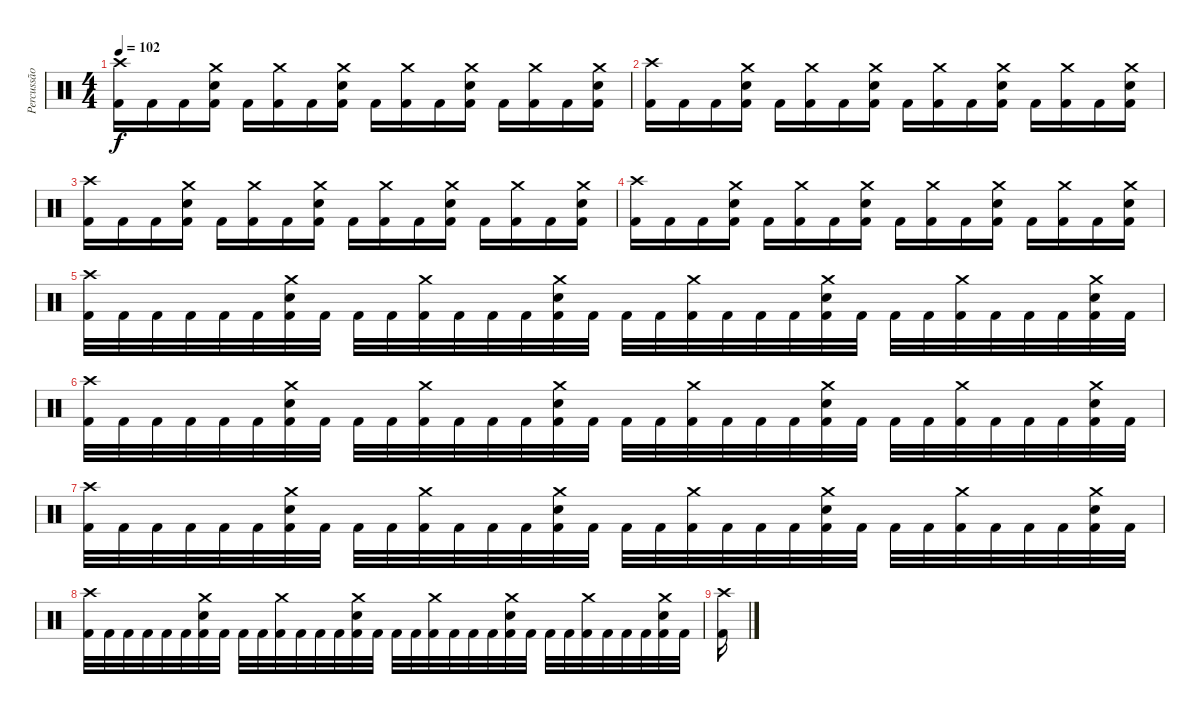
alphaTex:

\track ("Percussão" "Percussão") {instrument percussion}
\staff {score}
\articulation defaults
\ts (4 4)
\tempo 102
\clef neutral
\ks c
("Crash high (hit)" "Kick (hit) 2").16{dy f} "Kick (hit) 2".16 "Kick (hit) 2".16 ("Crash medium (hit)" "Electric Snare (hit)" "Kick (hit) 2").16 "Kick (hit) 2".16 ("Crash medium (hit)" "Kick (hit) 2").16 "Kick (hit) 2".16 ("Crash medium (hit)" "Electric Snare (hit)" "Kick (hit) 2").16 "Kick (hit) 2".16 ("Crash medium (hit)" "Kick (hit) 2").16 "Kick (hit) 2".16 ("Crash medium (hit)" "Electric Snare (hit)" "Kick (hit) 2").16 "Kick (hit) 2".16 ("Crash medium (hit)" "Kick (hit) 2").16 "Kick (hit) 2".16 ("Crash medium (hit)" "Electric Snare (hit)" "Kick (hit) 2").16 |
("Crash high (hit)" "Kick (hit) 2").16 "Kick (hit) 2".16 "Kick (hit) 2".16 ("Crash medium (hit)" "Electric Snare (hit)" "Kick (hit) 2").16 "Kick (hit) 2".16 ("Crash medium (hit)" "Kick (hit) 2").16 "Kick (hit) 2".16 ("Crash medium (hit)" "Electric Snare (hit)" "Kick (hit) 2").16 "Kick (hit) 2".16 ("Crash medium (hit)" "Kick (hit) 2").16 "Kick (hit) 2".16 ("Crash medium (hit)" "Electric Snare (hit)" "Kick (hit) 2").16 "Kick (hit) 2".16 ("Crash medium (hit)" "Kick (hit) 2").16 "Kick (hit) 2".16 ("Crash medium (hit)" "Electric Snare (hit)" "Kick (hit) 2").16 |
("Crash high (hit)" "Kick (hit) 2").16 "Kick (hit) 2".16 "Kick (hit) 2".16 ("Crash medium (hit)" "Electric Snare (hit)" "Kick (hit) 2").16 "Kick (hit) 2".16 ("Crash medium (hit)" "Kick (hit) 2").16 "Kick (hit) 2".16 ("Crash medium (hit)" "Electric Snare (hit)" "Kick (hit) 2").16 "Kick (hit) 2".16 ("Crash medium (hit)" "Kick (hit) 2").16 "Kick (hit) 2".16 ("Crash medium (hit)" "Electric Snare (hit)" "Kick (hit) 2").16 "Kick (hit) 2".16 ("Crash medium (hit)" "Kick (hit) 2").16 "Kick (hit) 2".16 ("Crash medium (hit)" "Electric Snare (hit)" "Kick (hit) 2").16 |
("Crash high (hit)" "Kick (hit) 2").16 "Kick (hit) 2".16 "Kick (hit) 2".16 ("Crash medium (hit)" "Electric Snare (hit)" "Kick (hit) 2").16 "Kick (hit) 2".16 ("Crash medium (hit)" "Kick (hit) 2").16 "Kick (hit) 2".16 ("Crash medium (hit)" "Electric Snare (hit)" "Kick (hit) 2").16 "Kick (hit) 2".16 ("Crash medium (hit)" "Kick (hit) 2").16 "Kick (hit) 2".16 ("Crash medium (hit)" "Electric Snare (hit)" "Kick (hit) 2").16 "Kick (hit) 2".16 ("Crash medium (hit)" "Kick (hit) 2").16 "Kick (hit) 2".16 ("Crash medium (hit)" "Electric Snare (hit)" "Kick (hit) 2").16 |
("Crash high (hit)" "Kick (hit) 2").32 "Kick (hit) 2".32 "Kick (hit) 2".32 "Kick (hit) 2".32 "Kick (hit) 2".32 "Kick (hit) 2".32 ("Crash medium (hit)" "Electric Snare (hit)" "Kick (hit) 2").32 "Kick (hit) 2".32 "Kick (hit) 2".32 "Kick (hit) 2".32 ("Crash medium (hit)" "Kick (hit) 2").32 "Kick (hit) 2".32 "Kick (hit) 2".32 "Kick (hit) 2".32 ("Crash medium (hit)" "Electric Snare (hit)" "Kick (hit) 2").32 "Kick (hit) 2".32 "Kick (hit) 2".32 "Kick (hit) 2".32 ("Crash medium (hit)" "Kick (hit) 2").32 "Kick (hit) 2".32 "Kick (hit) 2".32 "Kick (hit) 2".32 ("Crash medium (hit)" "Electric Snare (hit)" "Kick (hit) 2").32 "Kick (hit) 2".32 "Kick (hit) 2".32 "Kick (hit) 2".32 ("Crash medium (hit)" "Kick (hit) 2").32 "Kick (hit) 2".32 "Kick (hit) 2".32 "Kick (hit) 2".32 ("Crash medium (hit)" "Electric Snare (hit)" "Kick (hit) 2").32 "Kick (hit) 2".32 |
("Crash high (hit)" "Kick (hit) 2").32 "Kick (hit) 2".32 "Kick (hit) 2".32 "Kick (hit) 2".32 "Kick (hit) 2".32 "Kick (hit) 2".32 ("Crash medium (hit)" "Electric Snare (hit)" "Kick (hit) 2").32 "Kick (hit) 2".32 "Kick (hit) 2".32 "Kick (hit) 2".32 ("Crash medium (hit)" "Kick (hit) 2").32 "Kick (hit) 2".32 "Kick (hit) 2".32 "Kick (hit) 2".32 ("Crash medium (hit)" "Electric Snare (hit)" "Kick (hit) 2").32 "Kick (hit) 2".32 "Kick (hit) 2".32 "Kick (hit) 2".32 ("Crash medium (hit)" "Kick (hit) 2").32 "Kick (hit) 2".32 "Kick (hit) 2".32 "Kick (hit) 2".32 ("Crash medium (hit)" "Electric Snare (hit)" "Kick (hit) 2").32 "Kick (hit) 2".32 "Kick (hit) 2".32 "Kick (hit) 2".32 ("Crash medium (hit)" "Kick (hit) 2").32 "Kick (hit) 2".32 "Kick (hit) 2".32 "Kick (hit) 2".32 ("Crash medium (hit)" "Electric Snare (hit)" "Kick (hit) 2").32 "Kick (hit) 2".32 |
("Crash high (hit)" "Kick (hit) 2").32 "Kick (hit) 2".32 "Kick (hit) 2".32 "Kick (hit) 2".32 "Kick (hit) 2".32 "Kick (hit) 2".32 ("Crash medium (hit)" "Electric Snare (hit)" "Kick (hit) 2").32 "Kick (hit) 2".32 "Kick (hit) 2".32 "Kick (hit) 2".32 ("Crash medium (hit)" "Kick (hit) 2").32 "Kick (hit) 2".32 "Kick (hit) 2".32 "Kick (hit) 2".32 ("Crash medium (hit)" "Electric Snare (hit)" "Kick (hit) 2").32 "Kick (hit) 2".32 "Kick (hit) 2".32 "Kick (hit) 2".32 ("Crash medium (hit)" "Kick (hit) 2").32 "Kick (hit) 2".32 "Kick (hit) 2".32 "Kick (hit) 2".32 ("Crash medium (hit)" "Electric Snare (hit)" "Kick (hit) 2").32 "Kick (hit) 2".32 "Kick (hit) 2".32 "Kick (hit) 2".32 ("Crash medium (hit)" "Kick (hit) 2").32 "Kick (hit) 2".32 "Kick (hit) 2".32 "Kick (hit) 2".32 ("Crash medium (hit)" "Electric Snare (hit)" "Kick (hit) 2").32 "Kick (hit) 2".32 |
("Crash high (hit)" "Kick (hit) 2").32 "Kick (hit) 2".32 "Kick (hit) 2".32 "Kick (hit) 2".32 "Kick (hit) 2".32 "Kick (hit) 2".32 ("Crash medium (hit)" "Electric Snare (hit)" "Kick (hit) 2").32 "Kick (hit) 2".32 "Kick (hit) 2".32 "Kick (hit) 2".32 ("Crash medium (hit)" "Kick (hit) 2").32 "Kick (hit) 2".32 "Kick (hit) 2".32 "Kick (hit) 2".32 ("Crash medium (hit)" "Electric Snare (hit)" "Kick (hit) 2").32 "Kick (hit) 2".32 "Kick (hit) 2".32 "Kick (hit) 2".32 ("Crash medium (hit)" "Kick (hit) 2").32 "Kick (hit) 2".32 "Kick (hit) 2".32 "Kick (hit) 2".32 ("Crash medium (hit)" "Electric Snare (hit)" "Kick (hit) 2").32 "Kick (hit) 2".32 "Kick (hit) 2".32 "Kick (hit) 2".32 ("Crash medium (hit)" "Kick (hit) 2").32 "Kick (hit) 2".32 "Kick (hit) 2".32 "Kick (hit) 2".32 ("Crash medium (hit)" "Electric Snare (hit)" "Kick (hit) 2").32 "Kick (hit) 2".32 |
("Crash high (hit)" "Kick (hit) 2").16
